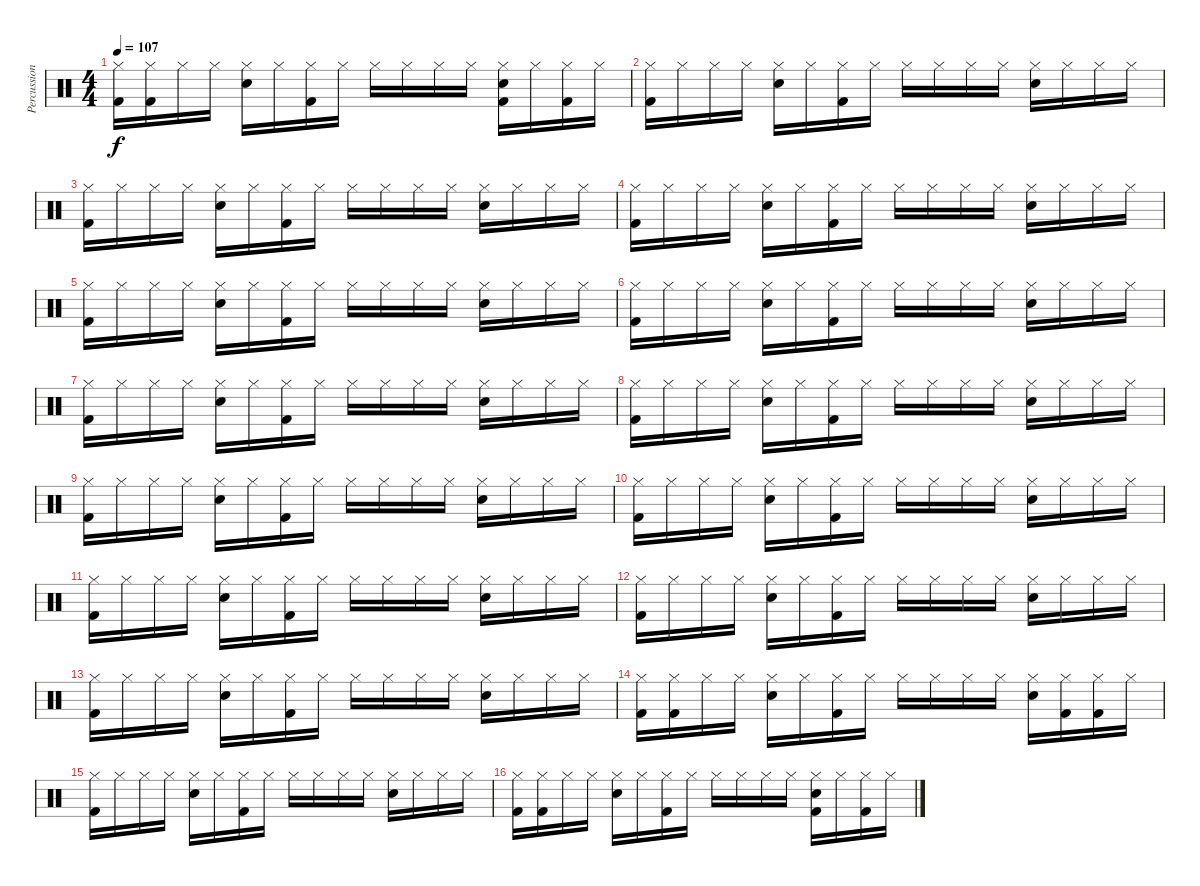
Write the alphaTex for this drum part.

\track ("Percussion" "Percussion") {instrument percussion}
\staff {score}
\articulation defaults
\ts (4 4)
\tempo 107
\clef neutral
\ks c
("Hi-Hat (closed)" "Kick (hit) 2").16{dy f} ("Hi-Hat (closed)" "Kick (hit) 2").16 "Hi-Hat (closed)".16 "Hi-Hat (closed)".16 ("Hi-Hat (closed)" "Snare (hit) 2").16 "Hi-Hat (closed)".16 ("Hi-Hat (closed)" "Kick (hit) 2").16 "Hi-Hat (closed)".16 "Hi-Hat (closed)".16 "Hi-Hat (closed)".16 "Hi-Hat (closed)".16 "Hi-Hat (closed)".16 ("Hi-Hat (closed)" "Snare (hit) 2" "Kick (hit) 2").16 "Hi-Hat (closed)".16 ("Hi-Hat (closed)" "Kick (hit) 2").16 "Hi-Hat (closed)".16 |
("Hi-Hat (closed)" "Kick (hit) 2").16 "Hi-Hat (closed)".16 "Hi-Hat (closed)".16 "Hi-Hat (closed)".16 ("Hi-Hat (closed)" "Snare (hit) 2").16 "Hi-Hat (closed)".16 ("Hi-Hat (closed)" "Kick (hit) 2").16 "Hi-Hat (closed)".16 "Hi-Hat (closed)".16 "Hi-Hat (closed)".16 "Hi-Hat (closed)".16 "Hi-Hat (closed)".16 ("Hi-Hat (closed)" "Snare (hit) 2").16 "Hi-Hat (closed)".16 "Hi-Hat (closed)".16 "Hi-Hat (closed)".16 |
("Hi-Hat (closed)" "Kick (hit) 2").16 "Hi-Hat (closed)".16 "Hi-Hat (closed)".16 "Hi-Hat (closed)".16 ("Hi-Hat (closed)" "Snare (hit) 2").16 "Hi-Hat (closed)".16 ("Hi-Hat (closed)" "Kick (hit) 2").16 "Hi-Hat (closed)".16 "Hi-Hat (closed)".16 "Hi-Hat (closed)".16 "Hi-Hat (closed)".16 "Hi-Hat (closed)".16 ("Hi-Hat (closed)" "Snare (hit) 2").16 "Hi-Hat (closed)".16 "Hi-Hat (closed)".16 "Hi-Hat (closed)".16 |
("Hi-Hat (closed)" "Kick (hit) 2").16 "Hi-Hat (closed)".16 "Hi-Hat (closed)".16 "Hi-Hat (closed)".16 ("Hi-Hat (closed)" "Snare (hit) 2").16 "Hi-Hat (closed)".16 ("Hi-Hat (closed)" "Kick (hit) 2").16 "Hi-Hat (closed)".16 "Hi-Hat (closed)".16 "Hi-Hat (closed)".16 "Hi-Hat (closed)".16 "Hi-Hat (closed)".16 ("Hi-Hat (closed)" "Snare (hit) 2").16 "Hi-Hat (closed)".16 "Hi-Hat (closed)".16 "Hi-Hat (closed)".16 |
("Hi-Hat (closed)" "Kick (hit) 2").16 "Hi-Hat (closed)".16 "Hi-Hat (closed)".16 "Hi-Hat (closed)".16 ("Hi-Hat (closed)" "Snare (hit) 2").16 "Hi-Hat (closed)".16 ("Hi-Hat (closed)" "Kick (hit) 2").16 "Hi-Hat (closed)".16 "Hi-Hat (closed)".16 "Hi-Hat (closed)".16 "Hi-Hat (closed)".16 "Hi-Hat (closed)".16 ("Hi-Hat (closed)" "Snare (hit) 2").16 "Hi-Hat (closed)".16 "Hi-Hat (closed)".16 "Hi-Hat (closed)".16 |
("Hi-Hat (closed)" "Kick (hit) 2").16 "Hi-Hat (closed)".16 "Hi-Hat (closed)".16 "Hi-Hat (closed)".16 ("Hi-Hat (closed)" "Snare (hit) 2").16 "Hi-Hat (closed)".16 ("Hi-Hat (closed)" "Kick (hit) 2").16 "Hi-Hat (closed)".16 "Hi-Hat (closed)".16 "Hi-Hat (closed)".16 "Hi-Hat (closed)".16 "Hi-Hat (closed)".16 ("Hi-Hat (closed)" "Snare (hit) 2").16 "Hi-Hat (closed)".16 "Hi-Hat (closed)".16 "Hi-Hat (closed)".16 |
("Hi-Hat (closed)" "Kick (hit) 2").16 "Hi-Hat (closed)".16 "Hi-Hat (closed)".16 "Hi-Hat (closed)".16 ("Hi-Hat (closed)" "Snare (hit) 2").16 "Hi-Hat (closed)".16 ("Hi-Hat (closed)" "Kick (hit) 2").16 "Hi-Hat (closed)".16 "Hi-Hat (closed)".16 "Hi-Hat (closed)".16 "Hi-Hat (closed)".16 "Hi-Hat (closed)".16 ("Hi-Hat (closed)" "Snare (hit) 2").16 "Hi-Hat (closed)".16 "Hi-Hat (closed)".16 "Hi-Hat (closed)".16 |
("Hi-Hat (closed)" "Kick (hit) 2").16 "Hi-Hat (closed)".16 "Hi-Hat (closed)".16 "Hi-Hat (closed)".16 ("Hi-Hat (closed)" "Snare (hit) 2").16 "Hi-Hat (closed)".16 ("Hi-Hat (closed)" "Kick (hit) 2").16 "Hi-Hat (closed)".16 "Hi-Hat (closed)".16 "Hi-Hat (closed)".16 "Hi-Hat (closed)".16 "Hi-Hat (closed)".16 ("Hi-Hat (closed)" "Snare (hit) 2").16 "Hi-Hat (closed)".16 "Hi-Hat (closed)".16 "Hi-Hat (closed)".16 |
("Hi-Hat (closed)" "Kick (hit) 2").16 "Hi-Hat (closed)".16 "Hi-Hat (closed)".16 "Hi-Hat (closed)".16 ("Hi-Hat (closed)" "Snare (hit) 2").16 "Hi-Hat (closed)".16 ("Hi-Hat (closed)" "Kick (hit) 2").16 "Hi-Hat (closed)".16 "Hi-Hat (closed)".16 "Hi-Hat (closed)".16 "Hi-Hat (closed)".16 "Hi-Hat (closed)".16 ("Hi-Hat (closed)" "Snare (hit) 2").16 "Hi-Hat (closed)".16 "Hi-Hat (closed)".16 "Hi-Hat (closed)".16 |
("Hi-Hat (closed)" "Kick (hit) 2").16 "Hi-Hat (closed)".16 "Hi-Hat (closed)".16 "Hi-Hat (closed)".16 ("Hi-Hat (closed)" "Snare (hit) 2").16 "Hi-Hat (closed)".16 ("Hi-Hat (closed)" "Kick (hit) 2").16 "Hi-Hat (closed)".16 "Hi-Hat (closed)".16 "Hi-Hat (closed)".16 "Hi-Hat (closed)".16 "Hi-Hat (closed)".16 ("Hi-Hat (closed)" "Snare (hit) 2").16 "Hi-Hat (closed)".16 "Hi-Hat (closed)".16 "Hi-Hat (closed)".16 |
("Hi-Hat (closed)" "Kick (hit) 2").16 "Hi-Hat (closed)".16 "Hi-Hat (closed)".16 "Hi-Hat (closed)".16 ("Hi-Hat (closed)" "Snare (hit) 2").16 "Hi-Hat (closed)".16 ("Hi-Hat (closed)" "Kick (hit) 2").16 "Hi-Hat (closed)".16 "Hi-Hat (closed)".16 "Hi-Hat (closed)".16 "Hi-Hat (closed)".16 "Hi-Hat (closed)".16 ("Hi-Hat (closed)" "Snare (hit) 2").16 "Hi-Hat (closed)".16 "Hi-Hat (closed)".16 "Hi-Hat (closed)".16 |
("Hi-Hat (closed)" "Kick (hit) 2").16 "Hi-Hat (closed)".16 "Hi-Hat (closed)".16 "Hi-Hat (closed)".16 ("Hi-Hat (closed)" "Snare (hit) 2").16 "Hi-Hat (closed)".16 ("Hi-Hat (closed)" "Kick (hit) 2").16 "Hi-Hat (closed)".16 "Hi-Hat (closed)".16 "Hi-Hat (closed)".16 "Hi-Hat (closed)".16 "Hi-Hat (closed)".16 ("Hi-Hat (closed)" "Snare (hit) 2").16 "Hi-Hat (closed)".16 "Hi-Hat (closed)".16 "Hi-Hat (closed)".16 |
("Hi-Hat (closed)" "Kick (hit) 2").16 "Hi-Hat (closed)".16 "Hi-Hat (closed)".16 "Hi-Hat (closed)".16 ("Hi-Hat (closed)" "Snare (hit) 2").16 "Hi-Hat (closed)".16 ("Hi-Hat (closed)" "Kick (hit) 2").16 "Hi-Hat (closed)".16 "Hi-Hat (closed)".16 "Hi-Hat (closed)".16 "Hi-Hat (closed)".16 "Hi-Hat (closed)".16 ("Hi-Hat (closed)" "Snare (hit) 2").16 "Hi-Hat (closed)".16 "Hi-Hat (closed)".16 "Hi-Hat (closed)".16 |
("Hi-Hat (closed)" "Kick (hit) 2").16 ("Hi-Hat (closed)" "Kick (hit) 2").16 "Hi-Hat (closed)".16 "Hi-Hat (closed)".16 ("Hi-Hat (closed)" "Snare (hit) 2").16 "Hi-Hat (closed)".16 ("Hi-Hat (closed)" "Kick (hit) 2").16 "Hi-Hat (closed)".16 "Hi-Hat (closed)".16 "Hi-Hat (closed)".16 "Hi-Hat (closed)".16 "Hi-Hat (closed)".16 ("Hi-Hat (closed)" "Snare (hit) 2").16 ("Hi-Hat (closed)" "Kick (hit) 2").16 ("Hi-Hat (closed)" "Kick (hit) 2").16 "Hi-Hat (closed)".16 |
("Hi-Hat (closed)" "Kick (hit) 2").16 "Hi-Hat (closed)".16 "Hi-Hat (closed)".16 "Hi-Hat (closed)".16 ("Hi-Hat (closed)" "Snare (hit) 2").16 "Hi-Hat (closed)".16 ("Hi-Hat (closed)" "Kick (hit) 2").16 "Hi-Hat (closed)".16 "Hi-Hat (closed)".16 "Hi-Hat (closed)".16 "Hi-Hat (closed)".16 "Hi-Hat (closed)".16 ("Hi-Hat (closed)" "Snare (hit) 2").16 "Hi-Hat (closed)".16 "Hi-Hat (closed)".16 "Hi-Hat (closed)".16 |
("Hi-Hat (closed)" "Kick (hit) 2").16 ("Hi-Hat (closed)" "Kick (hit) 2").16 "Hi-Hat (closed)".16 "Hi-Hat (closed)".16 ("Hi-Hat (closed)" "Snare (hit) 2").16 "Hi-Hat (closed)".16 ("Hi-Hat (closed)" "Kick (hit) 2").16 "Hi-Hat (closed)".16 "Hi-Hat (closed)".16 "Hi-Hat (closed)".16 "Hi-Hat (closed)".16 "Hi-Hat (closed)".16 ("Hi-Hat (closed)" "Snare (hit) 2" "Kick (hit) 2").16 "Hi-Hat (closed)".16 ("Hi-Hat (closed)" "Kick (hit) 2").16 "Hi-Hat (closed)".16
